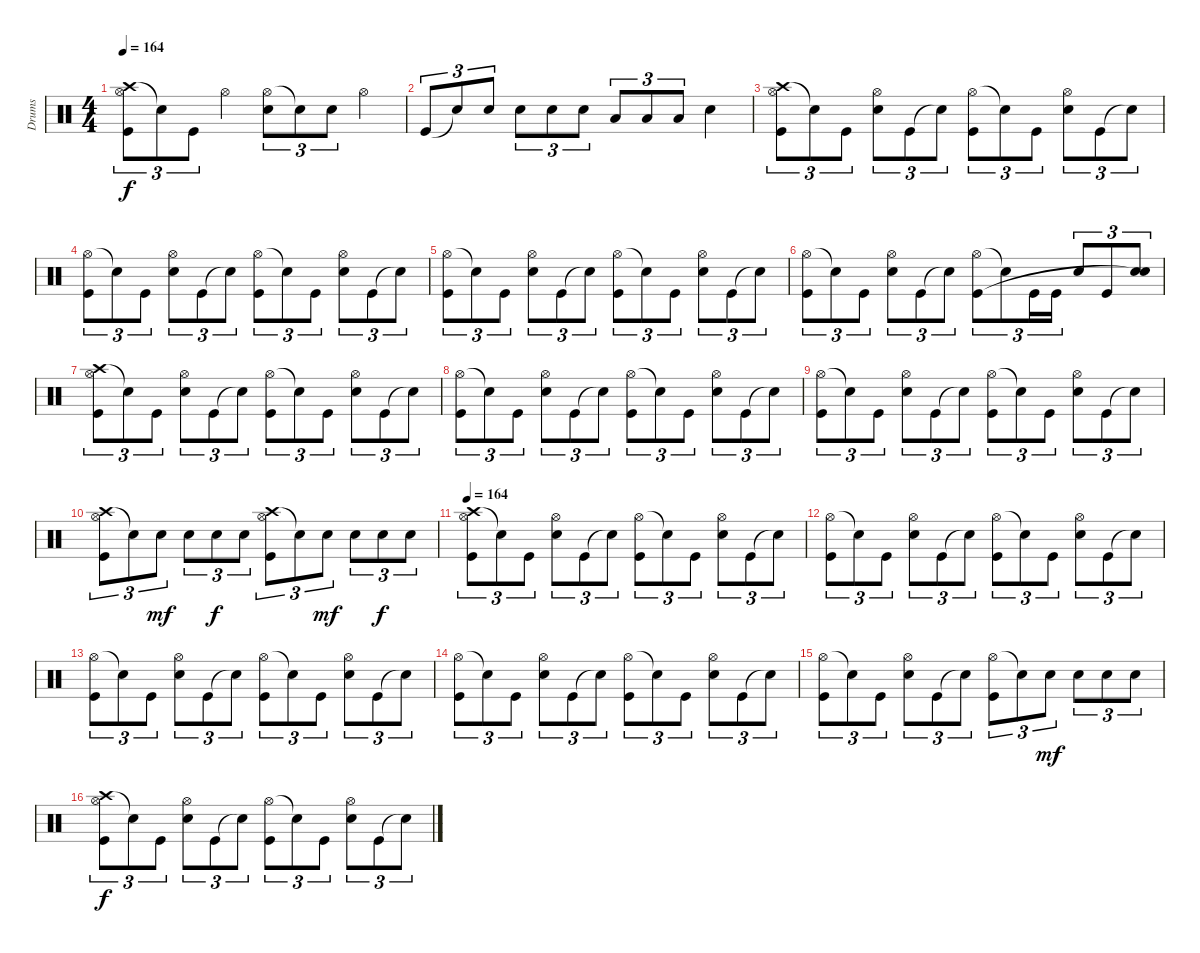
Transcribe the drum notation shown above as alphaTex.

\track ("Drums" "Drums") {instrument percussion}
\staff {score}
\articulation defaults
\ts (4 4)
\tempo 164
\clef neutral
\ks c
("Crash high (hit)" "Hi-Hat (open)" "Kick (hit)").8{tu (3 2) dy f} "Snare (hit)"{t}.8{tu (3 2)} "Kick (hit)".8{tu (3 2)} "Hi-Hat (open)".4 ("Hi-Hat (open)" "Electric Snare (hit)").8{tu (3 2)} "Snare (hit)"{t}.8{tu (3 2)} "Electric Snare (hit)".8{tu (3 2)} "Hi-Hat (open)".4 |
"Kick (hit)".8{tu (3 2)} "Snare (hit)"{t}.8{tu (3 2)} "Electric Snare (hit)".8{tu (3 2)} "Electric Snare (hit)".8{tu (3 2)} "Electric Snare (hit)".8{tu (3 2)} "Electric Snare (hit)".8{tu (3 2)} "Low Tom (hit)".8{tu (3 2)} "Low Tom (hit)".8{tu (3 2)} "Low Tom (hit)".8{tu (3 2)} "Electric Snare (hit)".4 |
("Crash high (hit)" "Hi-Hat (open)" "Kick (hit)").8{tu (3 2)} "Snare (hit)"{t}.8{tu (3 2)} "Kick (hit)".8{tu (3 2)} ("Hi-Hat (open)" "Electric Snare (hit)").8{tu (3 2)} "Kick (hit)".8{tu (3 2)} "Snare (hit)"{t}.8{tu (3 2)} ("Hi-Hat (open)" "Kick (hit)").8{tu (3 2)} "Snare (hit)"{t}.8{tu (3 2)} "Kick (hit)".8{tu (3 2)} ("Hi-Hat (open)" "Electric Snare (hit)").8{tu (3 2)} "Kick (hit)".8{tu (3 2)} "Snare (hit)"{t}.8{tu (3 2)} |
("Hi-Hat (open)" "Kick (hit)").8{tu (3 2)} "Snare (hit)"{t}.8{tu (3 2)} "Kick (hit)".8{tu (3 2)} ("Hi-Hat (open)" "Electric Snare (hit)").8{tu (3 2)} "Kick (hit)".8{tu (3 2)} "Snare (hit)"{t}.8{tu (3 2)} ("Hi-Hat (open)" "Kick (hit)").8{tu (3 2)} "Snare (hit)"{t}.8{tu (3 2)} "Kick (hit)".8{tu (3 2)} ("Hi-Hat (open)" "Electric Snare (hit)").8{tu (3 2)} "Kick (hit)".8{tu (3 2)} "Snare (hit)"{t}.8{tu (3 2)} |
("Hi-Hat (open)" "Kick (hit)").8{tu (3 2)} "Snare (hit)"{t}.8{tu (3 2)} "Kick (hit)".8{tu (3 2)} ("Hi-Hat (open)" "Electric Snare (hit)").8{tu (3 2)} "Kick (hit)".8{tu (3 2)} "Snare (hit)"{t}.8{tu (3 2)} ("Hi-Hat (open)" "Kick (hit)").8{tu (3 2)} "Snare (hit)"{t}.8{tu (3 2)} "Kick (hit)".8{tu (3 2)} ("Hi-Hat (open)" "Electric Snare (hit)").8{tu (3 2)} "Kick (hit)".8{tu (3 2)} "Snare (hit)"{t}.8{tu (3 2)} |
("Hi-Hat (open)" "Kick (hit)").8{tu (3 2)} "Snare (hit)"{t}.8{tu (3 2)} "Kick (hit)".8{tu (3 2)} ("Hi-Hat (open)" "Electric Snare (hit)").8{tu (3 2)} "Kick (hit)".8{tu (3 2)} "Snare (hit)"{t}.8{tu (3 2)} ("Hi-Hat (open)" "Kick (hit)").8{tu (3 2)} "Snare (hit)"{t}.8{tu (3 2)} "Kick (hit)".16{tu (3 2)} "Kick (hit)".16{tu (3 2)} "Electric Snare (hit)".8{tu (3 2)} "Kick (hit)".8{tu (3 2)} ("Electric Snare (hit)" "Snare (hit)"{t}).8{tu (3 2)} |
("Crash high (hit)" "Hi-Hat (open)" "Kick (hit)").8{tu (3 2)} "Snare (hit)"{t}.8{tu (3 2)} "Kick (hit)".8{tu (3 2)} ("Hi-Hat (open)" "Electric Snare (hit)").8{tu (3 2)} "Kick (hit)".8{tu (3 2)} "Snare (hit)"{t}.8{tu (3 2)} ("Hi-Hat (open)" "Kick (hit)").8{tu (3 2)} "Snare (hit)"{t}.8{tu (3 2)} "Kick (hit)".8{tu (3 2)} ("Hi-Hat (open)" "Electric Snare (hit)").8{tu (3 2)} "Kick (hit)".8{tu (3 2)} "Snare (hit)"{t}.8{tu (3 2)} |
("Hi-Hat (open)" "Kick (hit)").8{tu (3 2)} "Snare (hit)"{t}.8{tu (3 2)} "Kick (hit)".8{tu (3 2)} ("Hi-Hat (open)" "Electric Snare (hit)").8{tu (3 2)} "Kick (hit)".8{tu (3 2)} "Snare (hit)"{t}.8{tu (3 2)} ("Hi-Hat (open)" "Kick (hit)").8{tu (3 2)} "Snare (hit)"{t}.8{tu (3 2)} "Kick (hit)".8{tu (3 2)} ("Hi-Hat (open)" "Electric Snare (hit)").8{tu (3 2)} "Kick (hit)".8{tu (3 2)} "Snare (hit)"{t}.8{tu (3 2)} |
("Hi-Hat (open)" "Kick (hit)").8{tu (3 2)} "Snare (hit)"{t}.8{tu (3 2)} "Kick (hit)".8{tu (3 2)} ("Hi-Hat (open)" "Electric Snare (hit)").8{tu (3 2)} "Kick (hit)".8{tu (3 2)} "Snare (hit)"{t}.8{tu (3 2)} ("Hi-Hat (open)" "Kick (hit)").8{tu (3 2)} "Snare (hit)"{t}.8{tu (3 2)} "Kick (hit)".8{tu (3 2)} ("Hi-Hat (open)" "Electric Snare (hit)").8{tu (3 2)} "Kick (hit)".8{tu (3 2)} "Snare (hit)"{t}.8{tu (3 2)} |
("Crash high (hit)" "Hi-Hat (open)" "Kick (hit)").8{tu (3 2)} "Snare (hit)"{t}.8{tu (3 2)} "Electric Snare (hit)".8{tu (3 2) dy mf} "Electric Snare (hit)".8{tu (3 2)} "Electric Snare (hit)".8{tu (3 2) dy f} "Electric Snare (hit)".8{tu (3 2)} ("Crash high (hit)" "Hi-Hat (open)" "Kick (hit)").8{tu (3 2)} "Snare (hit)"{t}.8{tu (3 2)} "Electric Snare (hit)".8{tu (3 2) dy mf} "Electric Snare (hit)".8{tu (3 2)} "Electric Snare (hit)".8{tu (3 2) dy f} "Electric Snare (hit)".8{tu (3 2)} |
\tempo 164
("Crash high (hit)" "Hi-Hat (open)" "Kick (hit)").8{tu (3 2)} "Snare (hit)"{t}.8{tu (3 2)} "Kick (hit)".8{tu (3 2)} ("Hi-Hat (open)" "Electric Snare (hit)").8{tu (3 2)} "Kick (hit)".8{tu (3 2)} "Snare (hit)"{t}.8{tu (3 2)} ("Hi-Hat (open)" "Kick (hit)").8{tu (3 2)} "Snare (hit)"{t}.8{tu (3 2)} "Kick (hit)".8{tu (3 2)} ("Hi-Hat (open)" "Electric Snare (hit)").8{tu (3 2)} "Kick (hit)".8{tu (3 2)} "Snare (hit)"{t}.8{tu (3 2)} |
("Hi-Hat (open)" "Kick (hit)").8{tu (3 2)} "Snare (hit)"{t}.8{tu (3 2)} "Kick (hit)".8{tu (3 2)} ("Hi-Hat (open)" "Electric Snare (hit)").8{tu (3 2)} "Kick (hit)".8{tu (3 2)} "Snare (hit)"{t}.8{tu (3 2)} ("Hi-Hat (open)" "Kick (hit)").8{tu (3 2)} "Snare (hit)"{t}.8{tu (3 2)} "Kick (hit)".8{tu (3 2)} ("Hi-Hat (open)" "Electric Snare (hit)").8{tu (3 2)} "Kick (hit)".8{tu (3 2)} "Snare (hit)"{t}.8{tu (3 2)} |
("Hi-Hat (open)" "Kick (hit)").8{tu (3 2)} "Snare (hit)"{t}.8{tu (3 2)} "Kick (hit)".8{tu (3 2)} ("Hi-Hat (open)" "Electric Snare (hit)").8{tu (3 2)} "Kick (hit)".8{tu (3 2)} "Snare (hit)"{t}.8{tu (3 2)} ("Hi-Hat (open)" "Kick (hit)").8{tu (3 2)} "Snare (hit)"{t}.8{tu (3 2)} "Kick (hit)".8{tu (3 2)} ("Hi-Hat (open)" "Electric Snare (hit)").8{tu (3 2)} "Kick (hit)".8{tu (3 2)} "Snare (hit)"{t}.8{tu (3 2)} |
("Hi-Hat (open)" "Kick (hit)").8{tu (3 2)} "Snare (hit)"{t}.8{tu (3 2)} "Kick (hit)".8{tu (3 2)} ("Hi-Hat (open)" "Electric Snare (hit)").8{tu (3 2)} "Kick (hit)".8{tu (3 2)} "Snare (hit)"{t}.8{tu (3 2)} ("Hi-Hat (open)" "Kick (hit)").8{tu (3 2)} "Snare (hit)"{t}.8{tu (3 2)} "Kick (hit)".8{tu (3 2)} ("Hi-Hat (open)" "Electric Snare (hit)").8{tu (3 2)} "Kick (hit)".8{tu (3 2)} "Snare (hit)"{t}.8{tu (3 2)} |
("Hi-Hat (open)" "Kick (hit)").8{tu (3 2)} "Snare (hit)"{t}.8{tu (3 2)} "Kick (hit)".8{tu (3 2)} ("Hi-Hat (open)" "Electric Snare (hit)").8{tu (3 2)} "Kick (hit)".8{tu (3 2)} "Snare (hit)"{t}.8{tu (3 2)} ("Hi-Hat (open)" "Kick (hit)").8{tu (3 2)} "Snare (hit)"{t}.8{tu (3 2)} "Electric Snare (hit)".8{tu (3 2) dy mf} "Electric Snare (hit)".8{tu (3 2)} "Electric Snare (hit)".8{tu (3 2)} "Electric Snare (hit)".8{tu (3 2)} |
("Crash high (hit)" "Hi-Hat (open)" "Kick (hit)").8{tu (3 2) dy f} "Snare (hit)"{t}.8{tu (3 2)} "Kick (hit)".8{tu (3 2)} ("Hi-Hat (open)" "Electric Snare (hit)").8{tu (3 2)} "Kick (hit)".8{tu (3 2)} "Snare (hit)"{t}.8{tu (3 2)} ("Hi-Hat (open)" "Kick (hit)").8{tu (3 2)} "Snare (hit)"{t}.8{tu (3 2)} "Kick (hit)".8{tu (3 2)} ("Hi-Hat (open)" "Electric Snare (hit)").8{tu (3 2)} "Kick (hit)".8{tu (3 2)} "Snare (hit)"{t}.8{tu (3 2)}
